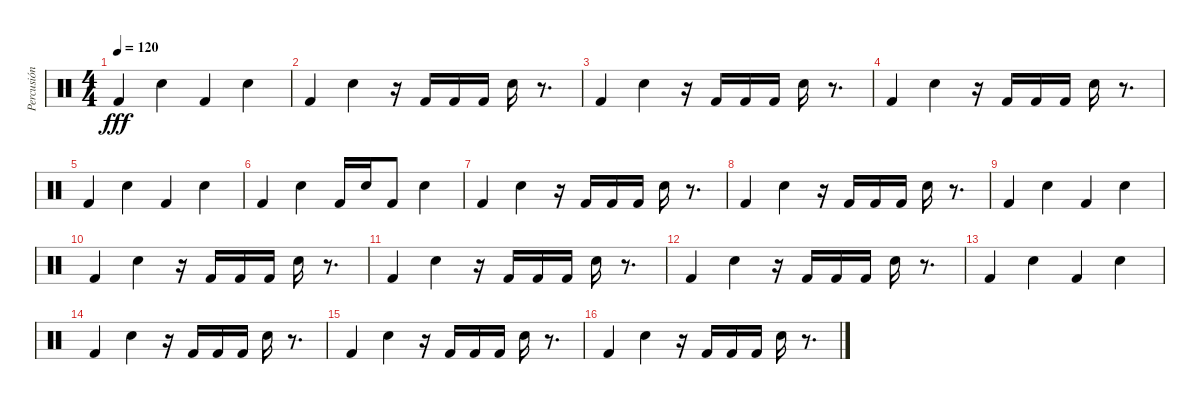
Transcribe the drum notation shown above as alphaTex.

\track ("Percusión" "Percusión") {instrument percussion}
\staff {score}
\articulation defaults
\ts (4 4)
\tempo 120
\clef neutral
\ks c "Kick (hit) 2".4{dy fff} "Snare (hit) 2".4 "Kick (hit) 2".4 "Snare (hit) 2".4
|
"Kick (hit) 2".4 "Snare (hit) 2".4 r.16 "Kick (hit) 2".16 "Kick (hit) 2".16 "Kick (hit) 2".16 "Snare (hit) 2".16 r.8{d} |
"Kick (hit) 2".4 "Snare (hit) 2".4 r.16 "Kick (hit) 2".16 "Kick (hit) 2".16 "Kick (hit) 2".16 "Snare (hit) 2".16 r.8{d} |
"Kick (hit) 2".4 "Snare (hit) 2".4 r.16 "Kick (hit) 2".16 "Kick (hit) 2".16 "Kick (hit) 2".16 "Snare (hit) 2".16 r.8{d} |
"Kick (hit) 2".4 "Snare (hit) 2".4 "Kick (hit) 2".4 "Snare (hit) 2".4 |
"Kick (hit) 2".4 "Snare (hit) 2".4 "Kick (hit) 2".16 "Snare (hit) 2".16 "Kick (hit) 2".8 "Snare (hit) 2".4 |
"Kick (hit) 2".4 "Snare (hit) 2".4 r.16 "Kick (hit) 2".16 "Kick (hit) 2".16 "Kick (hit) 2".16 "Snare (hit) 2".16 r.8{d} |
"Kick (hit) 2".4 "Snare (hit) 2".4 r.16 "Kick (hit) 2".16 "Kick (hit) 2".16 "Kick (hit) 2".16 "Snare (hit) 2".16 r.8{d} |
"Kick (hit) 2".4 "Snare (hit) 2".4 "Kick (hit) 2".4 "Snare (hit) 2".4 |
"Kick (hit) 2".4 "Snare (hit) 2".4 r.16 "Kick (hit) 2".16 "Kick (hit) 2".16 "Kick (hit) 2".16 "Snare (hit) 2".16 r.8{d} |
"Kick (hit) 2".4 "Snare (hit) 2".4 r.16 "Kick (hit) 2".16 "Kick (hit) 2".16 "Kick (hit) 2".16 "Snare (hit) 2".16 r.8{d} |
"Kick (hit) 2".4 "Snare (hit) 2".4 r.16 "Kick (hit) 2".16 "Kick (hit) 2".16 "Kick (hit) 2".16 "Snare (hit) 2".16 r.8{d} |
"Kick (hit) 2".4 "Snare (hit) 2".4 "Kick (hit) 2".4 "Snare (hit) 2".4 |
"Kick (hit) 2".4 "Snare (hit) 2".4 r.16 "Kick (hit) 2".16 "Kick (hit) 2".16 "Kick (hit) 2".16 "Snare (hit) 2".16 r.8{d} |
"Kick (hit) 2".4 "Snare (hit) 2".4 r.16 "Kick (hit) 2".16 "Kick (hit) 2".16 "Kick (hit) 2".16 "Snare (hit) 2".16 r.8{d} |
"Kick (hit) 2".4 "Snare (hit) 2".4 r.16 "Kick (hit) 2".16 "Kick (hit) 2".16 "Kick (hit) 2".16 "Snare (hit) 2".16 r.8{d}
